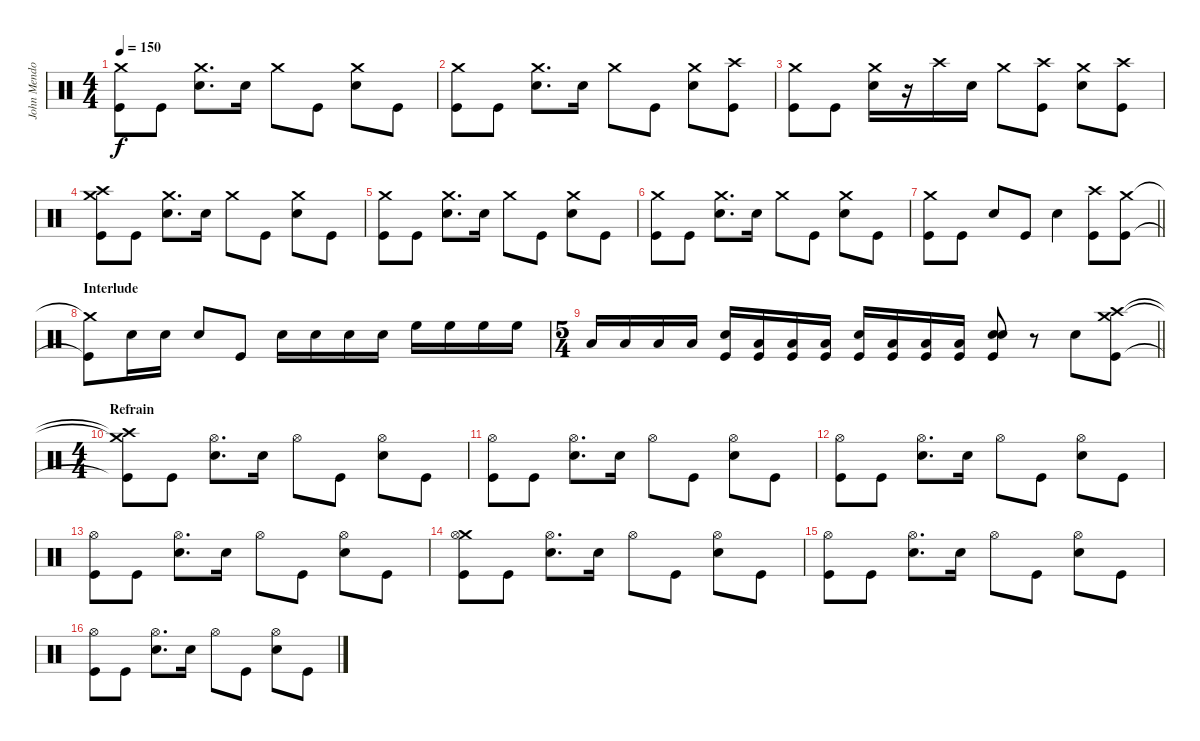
\track ("John Mendoza" "John Mendo") {instrument percussion}
\staff {score}
\articulation defaults
\ts (4 4)
\tempo 150
\clef neutral
\ks c
("Crash medium (hit)" "Kick (hit)").8{dy f} "Kick (hit)".8 ("Crash medium (hit)" "Snare (hit) 2").8{d} "Snare (hit) 2".16 "Crash medium (hit)".8 "Kick (hit)".8 ("Crash medium (hit)" "Snare (hit) 2").8 "Kick (hit)".8 |
("Crash medium (hit)" "Kick (hit)").8 "Kick (hit)".8 ("Crash medium (hit)" "Snare (hit) 2").8{d} "Snare (hit) 2".16 "Crash medium (hit)".8 "Kick (hit)".8 ("Crash medium (hit)" "Snare (hit) 2").8 ("Crash high (hit)" "Kick (hit)").8 |
("Crash medium (hit)" "Kick (hit)").8 "Kick (hit)".8 ("Crash medium (hit)" "Snare (hit) 2").16 r.16 "Crash high (hit)".16 "Snare (hit) 2".16 "Crash medium (hit)".8 ("Crash high (hit)" "Kick (hit)").8 ("Crash medium (hit)" "Snare (hit) 2").8 ("Crash high (hit)" "Kick (hit)").8 |
("Crash medium (hit)" "Crash high (hit)" "Kick (hit)").8 "Kick (hit)".8 ("Crash medium (hit)" "Snare (hit) 2").8{d} "Snare (hit) 2".16 "Crash medium (hit)".8 "Kick (hit)".8 ("Crash medium (hit)" "Snare (hit) 2").8 "Kick (hit)".8 |
("Crash medium (hit)" "Kick (hit)").8 "Kick (hit)".8 ("Crash medium (hit)" "Snare (hit) 2").8{d} "Snare (hit) 2".16 "Crash medium (hit)".8 "Kick (hit)".8 ("Crash medium (hit)" "Snare (hit) 2").8 "Kick (hit)".8 |
("Crash medium (hit)" "Kick (hit)").8 "Kick (hit)".8 ("Crash medium (hit)" "Snare (hit) 2").8{d} "Snare (hit) 2".16 "Crash medium (hit)".8 "Kick (hit)".8 ("Crash medium (hit)" "Snare (hit) 2").8 "Kick (hit)".8 |
\barLineRight lightlight
("Crash medium (hit)" "Kick (hit)").8 "Kick (hit)".8 "Snare (hit) 2".8 "Kick (hit)".8 "Snare (hit) 2".4 ("Crash high (hit)" "Kick (hit)").8 ("Crash medium (hit)" "Kick (hit)").8 |
\section ("" "Interlude")
("Crash medium (hit)"{t} "Kick (hit)"{t}).8 "Snare (hit) 2".16 "Snare (hit) 2".16 "Snare (hit) 2".8 "Kick (hit)".8 "Snare (hit) 2".16 "Snare (hit) 2".16 "Snare (hit) 2".16 "Snare (hit) 2".16 "High Floor Tom (hit)".16 "High Floor Tom (hit)".16 "High Floor Tom (hit)".16 "High Floor Tom (hit)".16 |
\ts (5 4)
\barLineRight lightlight "Low Tom (hit)".16 "Low Tom (hit)".16 "Low Tom (hit)".16 "Low Floor Tom (hit)".16
("Snare (hit) 2" "Kick (hit)").16 ("Low Floor Tom (hit)" "Kick (hit)").16 ("Low Floor Tom (hit)" "Kick (hit)").16 ("Low Floor Tom (hit)" "Kick (hit)").16 ("Snare (hit) 2" "Kick (hit)").16 ("Low Floor Tom (hit)" "Kick (hit)").16 ("Low Floor Tom (hit)" "Kick (hit)").16 ("Low Floor Tom (hit)" "Kick (hit)").16 ("Snare (hit) 2" "Snare (hit) 2" "Kick (hit)").8 r.8 "Snare (hit) 2".8 ("Crash medium (hit)" "Crash high (hit)" "Kick (hit)").8 |
\ts (4 4)
\section ("" "Refrain")
("Crash medium (hit)"{t} "Crash high (hit)"{t} "Kick (hit)"{t}).8 "Kick (hit)".8 ("Hi-Hat (open)" "Snare (hit) 2").8{d} "Snare (hit) 2".16 "Hi-Hat (open)".8 "Kick (hit)".8 ("Hi-Hat (open)" "Snare (hit) 2").8 "Kick (hit)".8 |
("Hi-Hat (open)" "Kick (hit)").8 "Kick (hit)".8 ("Hi-Hat (open)" "Snare (hit) 2").8{d} "Snare (hit) 2".16 "Hi-Hat (open)".8 "Kick (hit)".8 ("Hi-Hat (open)" "Snare (hit) 2").8 "Kick (hit)".8 |
("Hi-Hat (open)" "Kick (hit)").8 "Kick (hit)".8 ("Hi-Hat (open)" "Snare (hit) 2").8{d} "Snare (hit) 2".16 "Hi-Hat (open)".8 "Kick (hit)".8 ("Hi-Hat (open)" "Snare (hit) 2").8 "Kick (hit)".8 |
("Hi-Hat (open)" "Kick (hit)").8 "Kick (hit)".8 ("Hi-Hat (open)" "Snare (hit) 2").8{d} "Snare (hit) 2".16 "Hi-Hat (open)".8 "Kick (hit)".8 ("Hi-Hat (open)" "Snare (hit) 2").8 "Kick (hit)".8 |
("Crash medium (hit)" "Hi-Hat (open)" "Kick (hit)").8 "Kick (hit)".8 ("Hi-Hat (open)" "Snare (hit) 2").8{d} "Snare (hit) 2".16 "Hi-Hat (open)".8 "Kick (hit)".8 ("Hi-Hat (open)" "Snare (hit) 2").8 "Kick (hit)".8 |
("Hi-Hat (open)" "Kick (hit)").8 "Kick (hit)".8 ("Hi-Hat (open)" "Snare (hit) 2").8{d} "Snare (hit) 2".16 "Hi-Hat (open)".8 "Kick (hit)".8 ("Hi-Hat (open)" "Snare (hit) 2").8 "Kick (hit)".8 |
("Hi-Hat (open)" "Kick (hit)").8 "Kick (hit)".8 ("Hi-Hat (open)" "Snare (hit) 2").8{d} "Snare (hit) 2".16 "Hi-Hat (open)".8 "Kick (hit)".8 ("Hi-Hat (open)" "Snare (hit) 2").8 "Kick (hit)".8
